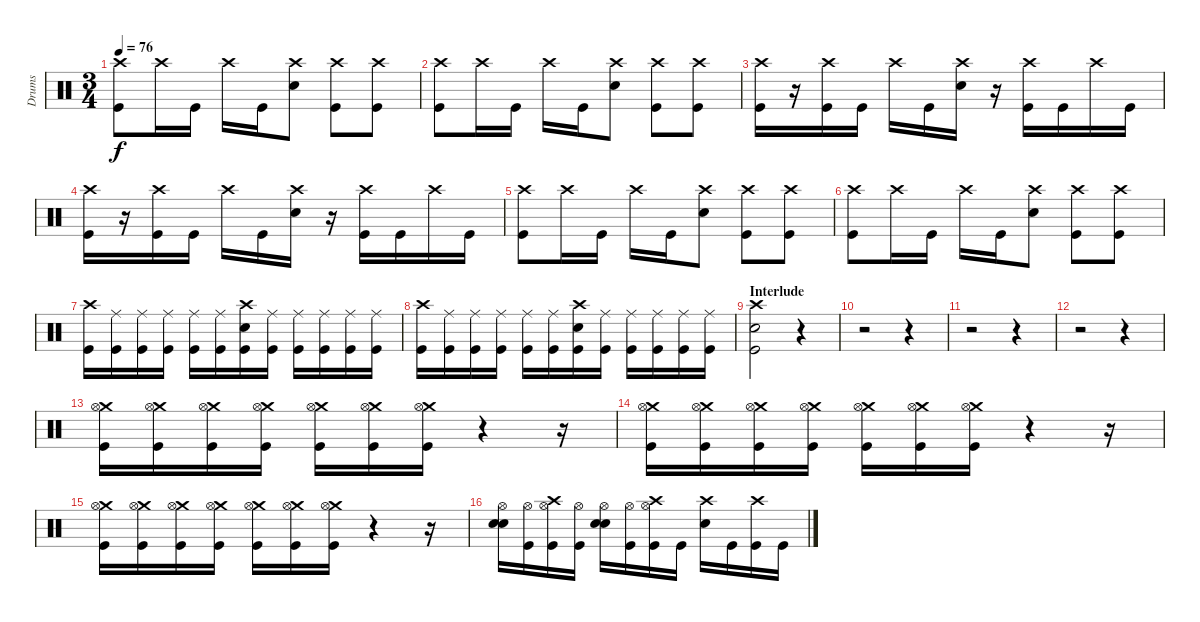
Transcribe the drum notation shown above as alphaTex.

\track ("Drums" "Drums") {instrument percussion}
\staff {score}
\articulation defaults
\ts (3 4)
\tempo 76
\clef neutral
\ks c
("Crash high (hit)" "Kick (hit)").8{dy f} "Crash high (hit)".16 "Kick (hit)".16 "Crash high (hit)".16 "Kick (hit)".16 ("Crash high (hit)" "Snare (hit) 2").8 ("Crash high (hit)" "Kick (hit)").8 ("Crash high (hit)" "Kick (hit)").8 |
("Crash high (hit)" "Kick (hit)").8 "Crash high (hit)".16 "Kick (hit)".16 "Crash high (hit)".16 "Kick (hit)".16 ("Crash high (hit)" "Snare (hit) 2").8 ("Crash high (hit)" "Kick (hit)").8 ("Crash high (hit)" "Kick (hit)").8 |
("Crash high (hit)" "Kick (hit)").16 r.16 ("Crash high (hit)" "Kick (hit)").16 "Kick (hit)".16 "Crash high (hit)".16 "Kick (hit)".16 ("Crash high (hit)" "Snare (hit) 2").16 r.16 ("Crash high (hit)" "Kick (hit)").16 "Kick (hit)".16 "Crash high (hit)".16 "Kick (hit)".16 |
("Crash high (hit)" "Kick (hit)").16 r.16 ("Crash high (hit)" "Kick (hit)").16 "Kick (hit)".16 "Crash high (hit)".16 "Kick (hit)".16 ("Crash high (hit)" "Snare (hit) 2").16 r.16 ("Crash high (hit)" "Kick (hit)").16 "Kick (hit)".16 "Crash high (hit)".16 "Kick (hit)".16 |
("Crash high (hit)" "Kick (hit)").8 "Crash high (hit)".16 "Kick (hit)".16 "Crash high (hit)".16 "Kick (hit)".16 ("Crash high (hit)" "Snare (hit) 2").8 ("Crash high (hit)" "Kick (hit)").8 ("Crash high (hit)" "Kick (hit)").8 |
("Crash high (hit)" "Kick (hit)").8 "Crash high (hit)".16 "Kick (hit)".16 "Crash high (hit)".16 "Kick (hit)".16 ("Crash high (hit)" "Snare (hit) 2").8 ("Crash high (hit)" "Kick (hit)").8 ("Crash high (hit)" "Kick (hit)").8 |
("Crash high (hit)" "Kick (hit)").16 ("Ride (middle)" "Kick (hit)").16 ("Ride (middle)" "Kick (hit)").16 ("Ride (middle)" "Kick (hit)").16 ("Ride (middle)" "Kick (hit)").16 ("Ride (middle)" "Kick (hit)").16 ("Crash high (hit)" "Snare (hit) 2" "Kick (hit)").16 ("Ride (middle)" "Kick (hit)").16 ("Ride (middle)" "Kick (hit)").16 ("Ride (middle)" "Kick (hit)").16 ("Ride (middle)" "Kick (hit)").16 ("Ride (middle)" "Kick (hit)").16 |
("Crash high (hit)" "Kick (hit)").16 ("Ride (middle)" "Kick (hit)").16 ("Ride (middle)" "Kick (hit)").16 ("Ride (middle)" "Kick (hit)").16 ("Ride (middle)" "Kick (hit)").16 ("Ride (middle)" "Kick (hit)").16 ("Crash high (hit)" "Snare (hit) 2" "Kick (hit)").16 ("Ride (middle)" "Kick (hit)").16 ("Ride (middle)" "Kick (hit)").16 ("Ride (middle)" "Kick (hit)").16 ("Ride (middle)" "Kick (hit)").16 ("Ride (middle)" "Kick (hit)").16 |
\section ("" "Interlude")
("Crash high (hit)" "Snare (hit) 2" "Kick (hit)").2 r.4 |
r.2 r.4 |
r.2 r.4 |
r.2 r.4 |
("Crash medium (hit)" "Hi-Hat (open)" "Kick (hit)").16 ("Crash medium (hit)" "Hi-Hat (open)" "Kick (hit)").16 ("Crash medium (hit)" "Hi-Hat (open)" "Kick (hit)").16 ("Crash medium (hit)" "Hi-Hat (open)" "Kick (hit)").16 ("Crash medium (hit)" "Hi-Hat (open)" "Kick (hit)").16 ("Crash medium (hit)" "Hi-Hat (open)" "Kick (hit)").16 ("Crash medium (hit)" "Hi-Hat (open)" "Kick (hit)").16 r.4 r.16 |
("Crash medium (hit)" "Hi-Hat (open)" "Kick (hit)").16 ("Crash medium (hit)" "Hi-Hat (open)" "Kick (hit)").16 ("Crash medium (hit)" "Hi-Hat (open)" "Kick (hit)").16 ("Crash medium (hit)" "Hi-Hat (open)" "Kick (hit)").16 ("Crash medium (hit)" "Hi-Hat (open)" "Kick (hit)").16 ("Crash medium (hit)" "Hi-Hat (open)" "Kick (hit)").16 ("Crash medium (hit)" "Hi-Hat (open)" "Kick (hit)").16 r.4 r.16 |
("Crash medium (hit)" "Hi-Hat (open)" "Kick (hit)").16 ("Crash medium (hit)" "Hi-Hat (open)" "Kick (hit)").16 ("Crash medium (hit)" "Hi-Hat (open)" "Kick (hit)").16 ("Crash medium (hit)" "Hi-Hat (open)" "Kick (hit)").16 ("Crash medium (hit)" "Hi-Hat (open)" "Kick (hit)").16 ("Crash medium (hit)" "Hi-Hat (open)" "Kick (hit)").16 ("Crash medium (hit)" "Hi-Hat (open)" "Kick (hit)").16 r.4 r.16 |
("Hi-Hat (open)" "Snare (hit) 2" "Snare (hit) 2").16 ("Hi-Hat (open)" "Kick (hit)").16 ("Crash high (hit)" "Hi-Hat (open)" "Kick (hit)").16 ("Hi-Hat (open)" "Kick (hit)").16 ("Hi-Hat (open)" "Snare (hit) 2" "Snare (hit) 2").16 ("Hi-Hat (open)" "Kick (hit)").16 ("Crash high (hit)" "Hi-Hat (open)" "Kick (hit)").16 "Kick (hit)".16 ("Crash high (hit)" "Snare (hit) 2").16 "Kick (hit)".16 ("Crash high (hit)" "Kick (hit)").16 "Kick (hit)".16
